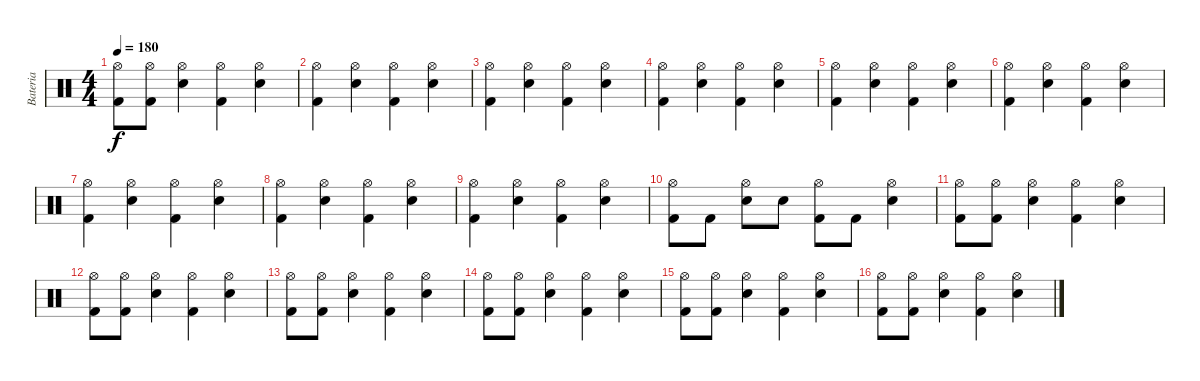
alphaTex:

\track ("Bateria" "Bateria") {instrument percussion}
\staff {score}
\articulation defaults
\ts (4 4)
\tempo 180
\clef neutral
\ks c
("Hi-Hat (open)" "Kick (hit) 2").8{dy f} ("Hi-Hat (open)" "Kick (hit) 2").8 ("Hi-Hat (open)" "Electric Snare (hit)").4 ("Hi-Hat (open)" "Kick (hit) 2").4 ("Hi-Hat (open)" "Electric Snare (hit)").4 |
("Hi-Hat (open)" "Kick (hit) 2").4 ("Hi-Hat (open)" "Electric Snare (hit)").4 ("Hi-Hat (open)" "Kick (hit) 2").4 ("Hi-Hat (open)" "Electric Snare (hit)").4 |
("Hi-Hat (open)" "Kick (hit) 2").4 ("Hi-Hat (open)" "Electric Snare (hit)").4 ("Hi-Hat (open)" "Kick (hit) 2").4 ("Hi-Hat (open)" "Electric Snare (hit)").4 |
("Hi-Hat (open)" "Kick (hit) 2").4 ("Hi-Hat (open)" "Electric Snare (hit)").4 ("Hi-Hat (open)" "Kick (hit) 2").4 ("Hi-Hat (open)" "Electric Snare (hit)").4 |
("Hi-Hat (open)" "Kick (hit) 2").4 ("Hi-Hat (open)" "Electric Snare (hit)").4 ("Hi-Hat (open)" "Kick (hit) 2").4 ("Hi-Hat (open)" "Electric Snare (hit)").4 |
("Hi-Hat (open)" "Kick (hit) 2").4 ("Hi-Hat (open)" "Electric Snare (hit)").4 ("Hi-Hat (open)" "Kick (hit) 2").4 ("Hi-Hat (open)" "Electric Snare (hit)").4 |
("Hi-Hat (open)" "Kick (hit) 2").4 ("Hi-Hat (open)" "Electric Snare (hit)").4 ("Hi-Hat (open)" "Kick (hit) 2").4 ("Hi-Hat (open)" "Electric Snare (hit)").4 |
("Hi-Hat (open)" "Kick (hit) 2").4 ("Hi-Hat (open)" "Electric Snare (hit)").4 ("Hi-Hat (open)" "Kick (hit) 2").4 ("Hi-Hat (open)" "Electric Snare (hit)").4 |
("Hi-Hat (open)" "Kick (hit) 2").4 ("Hi-Hat (open)" "Electric Snare (hit)").4 ("Hi-Hat (open)" "Kick (hit) 2").4 ("Hi-Hat (open)" "Electric Snare (hit)").4 |
("Hi-Hat (open)" "Kick (hit) 2").8 "Kick (hit) 2".8 ("Hi-Hat (open)" "Electric Snare (hit)").8 "Electric Snare (hit)".8 ("Hi-Hat (open)" "Kick (hit) 2").8 "Kick (hit) 2".8 ("Hi-Hat (open)" "Electric Snare (hit)").4 |
("Hi-Hat (open)" "Kick (hit) 2").8 ("Hi-Hat (open)" "Kick (hit) 2").8 ("Hi-Hat (open)" "Electric Snare (hit)").4 ("Hi-Hat (open)" "Kick (hit) 2").4 ("Hi-Hat (open)" "Electric Snare (hit)").4 |
("Hi-Hat (open)" "Kick (hit) 2").8 ("Hi-Hat (open)" "Kick (hit) 2").8 ("Hi-Hat (open)" "Electric Snare (hit)").4 ("Hi-Hat (open)" "Kick (hit) 2").4 ("Hi-Hat (open)" "Electric Snare (hit)").4 |
("Hi-Hat (open)" "Kick (hit) 2").8 ("Hi-Hat (open)" "Kick (hit) 2").8 ("Hi-Hat (open)" "Electric Snare (hit)").4 ("Hi-Hat (open)" "Kick (hit) 2").4 ("Hi-Hat (open)" "Electric Snare (hit)").4 |
("Hi-Hat (open)" "Kick (hit) 2").8 ("Hi-Hat (open)" "Kick (hit) 2").8 ("Hi-Hat (open)" "Electric Snare (hit)").4 ("Hi-Hat (open)" "Kick (hit) 2").4 ("Hi-Hat (open)" "Electric Snare (hit)").4 |
("Hi-Hat (open)" "Kick (hit) 2").8 ("Hi-Hat (open)" "Kick (hit) 2").8 ("Hi-Hat (open)" "Electric Snare (hit)").4 ("Hi-Hat (open)" "Kick (hit) 2").4 ("Hi-Hat (open)" "Electric Snare (hit)").4 |
("Hi-Hat (open)" "Kick (hit) 2").8 ("Hi-Hat (open)" "Kick (hit) 2").8 ("Hi-Hat (open)" "Electric Snare (hit)").4 ("Hi-Hat (open)" "Kick (hit) 2").4 ("Hi-Hat (open)" "Electric Snare (hit)").4
